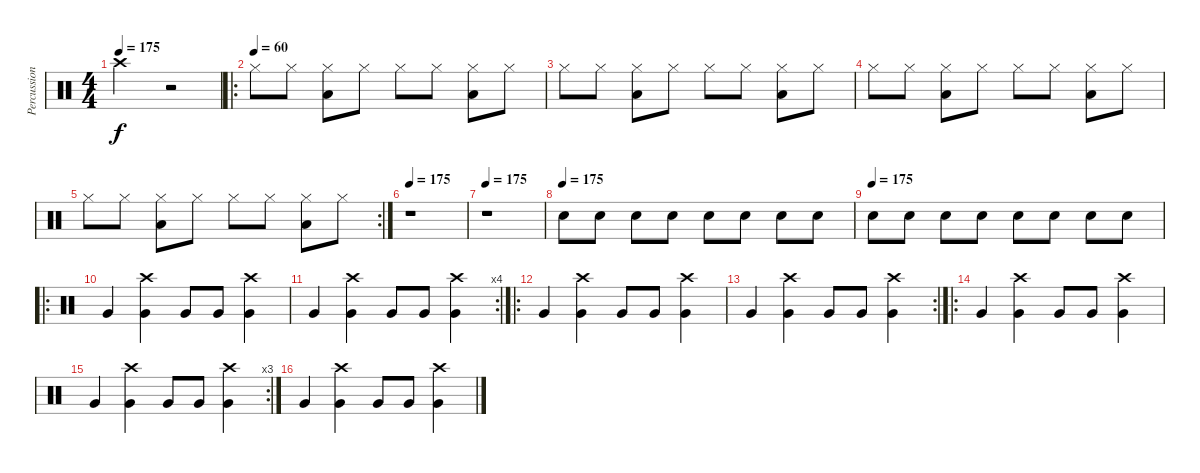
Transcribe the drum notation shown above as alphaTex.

\track ("Percussions" "Percussion") {instrument percussion}
\staff {score}
\articulation defaults
\ts (4 4)
\tempo 175
\clef neutral
\ks c "Crash high (hit)".2{dy f}
r.2 |
\ro
\tempo (60)
"Hi-Hat (closed)".8 "Hi-Hat (closed)".8 ("Hi-Hat (closed)" "Low Tom (hit)").8 "Hi-Hat (closed)".8 "Hi-Hat (closed)".8 "Hi-Hat (closed)".8 ("Hi-Hat (closed)" "Low Tom (hit)").8 "Hi-Hat (closed)".8 |
"Hi-Hat (closed)".8 "Hi-Hat (closed)".8 ("Hi-Hat (closed)" "Low Tom (hit)").8 "Hi-Hat (closed)".8 "Hi-Hat (closed)".8 "Hi-Hat (closed)".8 ("Hi-Hat (closed)" "Low Tom (hit)").8 "Hi-Hat (closed)".8 |
"Hi-Hat (closed)".8 "Hi-Hat (closed)".8 ("Hi-Hat (closed)" "Low Tom (hit)").8 "Hi-Hat (closed)".8 "Hi-Hat (closed)".8 "Hi-Hat (closed)".8 ("Hi-Hat (closed)" "Low Tom (hit)").8 "Hi-Hat (closed)".8 |
\rc 2 "Hi-Hat (closed)".8 "Hi-Hat (closed)".8
("Hi-Hat (closed)" "Low Tom (hit)").8 "Hi-Hat (closed)".8 "Hi-Hat (closed)".8 "Hi-Hat (closed)".8 ("Hi-Hat (closed)" "Low Tom (hit)").8 "Hi-Hat (closed)".8 |
\tempo 175
r.1 |
\tempo 175
r.1 |
\tempo (175)
"Snare (hit) 2".8 "Snare (hit) 2".8 "Snare (hit) 2".8 "Snare (hit) 2".8 "Snare (hit) 2".8 "Snare (hit) 2".8 "Snare (hit) 2".8 "Snare (hit) 2".8 |
\tempo (175)
"Snare (hit) 2".8 "Snare (hit) 2".8 "Snare (hit) 2".8 "Snare (hit) 2".8 "Snare (hit) 2".8 "Snare (hit) 2".8 "Snare (hit) 2".8 "Snare (hit) 2".8 |
\ro "Very Low Tom (hit)".4
("Very Low Tom (hit)" "Crash high (hit)").4 "Very Low Tom (hit)".8 "Very Low Tom (hit)".8 ("Very Low Tom (hit)" "Crash high (hit)").4 |
\rc 4 "Very Low Tom (hit)".4
("Very Low Tom (hit)" "Crash high (hit)").4 "Very Low Tom (hit)".8 "Very Low Tom (hit)".8 ("Very Low Tom (hit)" "Crash high (hit)").4 |
\ro "Very Low Tom (hit)".4
("Very Low Tom (hit)" "Crash high (hit)").4 "Very Low Tom (hit)".8 "Very Low Tom (hit)".8 ("Very Low Tom (hit)" "Crash high (hit)").4 |
\rc 2 "Very Low Tom (hit)".4
("Very Low Tom (hit)" "Crash high (hit)").4 "Very Low Tom (hit)".8 "Very Low Tom (hit)".8 ("Very Low Tom (hit)" "Crash high (hit)").4 |
\ro "Very Low Tom (hit)".4
("Very Low Tom (hit)" "Crash high (hit)").4 "Very Low Tom (hit)".8 "Very Low Tom (hit)".8 ("Very Low Tom (hit)" "Crash high (hit)").4 |
\rc 3 "Very Low Tom (hit)".4
("Very Low Tom (hit)" "Crash high (hit)").4 "Very Low Tom (hit)".8 "Very Low Tom (hit)".8 ("Very Low Tom (hit)" "Crash high (hit)").4 |
"Very Low Tom (hit)".4 ("Very Low Tom (hit)" "Crash high (hit)").4 "Very Low Tom (hit)".8 "Very Low Tom (hit)".8 ("Very Low Tom (hit)" "Crash high (hit)").4
